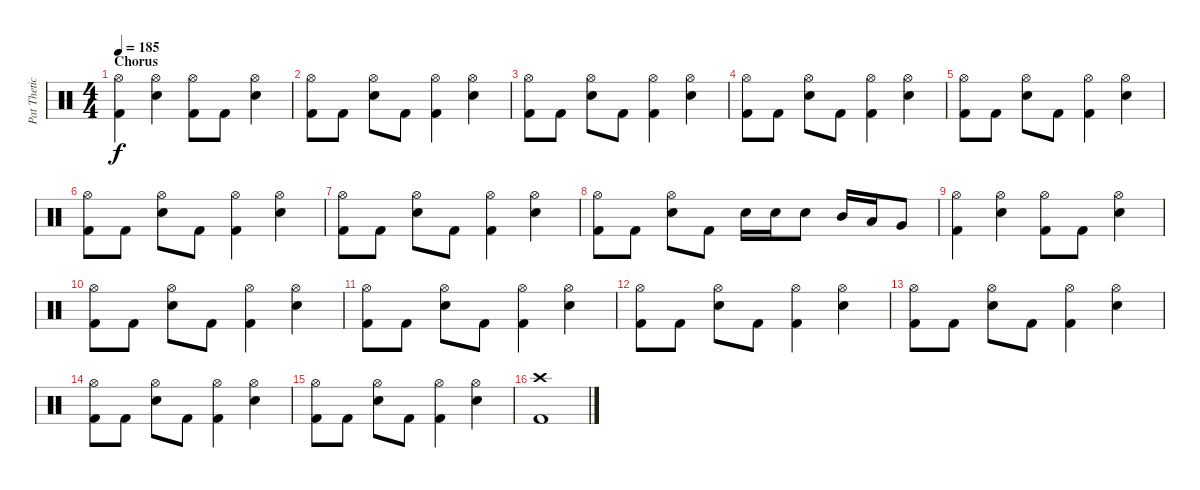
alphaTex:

\track ("Pat Thetic" "Pat Thetic") {instrument percussion}
\staff {score}
\articulation defaults
\ts (4 4)
\section ("" "Chorus")
\tempo 185
\clef neutral
\ks c
("Hi-Hat (open)" "Kick (hit) 2").4{dy f} ("Hi-Hat (open)" "Electric Snare (hit)").4 ("Hi-Hat (open)" "Kick (hit) 2").8 "Kick (hit) 2".8 ("Hi-Hat (open)" "Electric Snare (hit)").4 |
("Hi-Hat (open)" "Kick (hit) 2").8 "Kick (hit) 2".8 ("Hi-Hat (open)" "Electric Snare (hit)").8 "Kick (hit) 2".8 ("Hi-Hat (open)" "Kick (hit) 2").4 ("Hi-Hat (open)" "Electric Snare (hit)").4 |
("Hi-Hat (open)" "Kick (hit) 2").8 "Kick (hit) 2".8 ("Hi-Hat (open)" "Electric Snare (hit)").8 "Kick (hit) 2".8 ("Hi-Hat (open)" "Kick (hit) 2").4 ("Hi-Hat (open)" "Electric Snare (hit)").4 |
("Hi-Hat (open)" "Kick (hit) 2").8 "Kick (hit) 2".8 ("Hi-Hat (open)" "Electric Snare (hit)").8 "Kick (hit) 2".8 ("Hi-Hat (open)" "Kick (hit) 2").4 ("Hi-Hat (open)" "Electric Snare (hit)").4 |
("Hi-Hat (open)" "Kick (hit) 2").8 "Kick (hit) 2".8 ("Hi-Hat (open)" "Electric Snare (hit)").8 "Kick (hit) 2".8 ("Hi-Hat (open)" "Kick (hit) 2").4 ("Hi-Hat (open)" "Electric Snare (hit)").4 |
("Hi-Hat (open)" "Kick (hit) 2").8 "Kick (hit) 2".8 ("Hi-Hat (open)" "Electric Snare (hit)").8 "Kick (hit) 2".8 ("Hi-Hat (open)" "Kick (hit) 2").4 ("Hi-Hat (open)" "Electric Snare (hit)").4 |
("Hi-Hat (open)" "Kick (hit) 2").8 "Kick (hit) 2".8 ("Hi-Hat (open)" "Electric Snare (hit)").8 "Kick (hit) 2".8 ("Hi-Hat (open)" "Kick (hit) 2").4 ("Hi-Hat (open)" "Electric Snare (hit)").4 |
("Hi-Hat (open)" "Kick (hit) 2").8 "Kick (hit) 2".8 ("Hi-Hat (open)" "Electric Snare (hit)").8 "Kick (hit) 2".8 "Electric Snare (hit)".16 "Electric Snare (hit)".16 "Electric Snare (hit)".8 "Mid Tom (hit)".16 "Low Tom (hit)".16 "Very Low Tom (hit)".8 |
("Hi-Hat (open)" "Kick (hit) 2").4 ("Hi-Hat (open)" "Electric Snare (hit)").4 ("Hi-Hat (open)" "Kick (hit) 2").8 "Kick (hit) 2".8 ("Hi-Hat (open)" "Electric Snare (hit)").4 |
("Hi-Hat (open)" "Kick (hit) 2").8 "Kick (hit) 2".8 ("Hi-Hat (open)" "Electric Snare (hit)").8 "Kick (hit) 2".8 ("Hi-Hat (open)" "Kick (hit) 2").4 ("Hi-Hat (open)" "Electric Snare (hit)").4 |
("Hi-Hat (open)" "Kick (hit) 2").8 "Kick (hit) 2".8 ("Hi-Hat (open)" "Electric Snare (hit)").8 "Kick (hit) 2".8 ("Hi-Hat (open)" "Kick (hit) 2").4 ("Hi-Hat (open)" "Electric Snare (hit)").4 |
("Hi-Hat (open)" "Kick (hit) 2").8 "Kick (hit) 2".8 ("Hi-Hat (open)" "Electric Snare (hit)").8 "Kick (hit) 2".8 ("Hi-Hat (open)" "Kick (hit) 2").4 ("Hi-Hat (open)" "Electric Snare (hit)").4 |
("Hi-Hat (open)" "Kick (hit) 2").8 "Kick (hit) 2".8 ("Hi-Hat (open)" "Electric Snare (hit)").8 "Kick (hit) 2".8 ("Hi-Hat (open)" "Kick (hit) 2").4 ("Hi-Hat (open)" "Electric Snare (hit)").4 |
("Hi-Hat (open)" "Kick (hit) 2").8 "Kick (hit) 2".8 ("Hi-Hat (open)" "Electric Snare (hit)").8 "Kick (hit) 2".8 ("Hi-Hat (open)" "Kick (hit) 2").4 ("Hi-Hat (open)" "Electric Snare (hit)").4 |
("Hi-Hat (open)" "Kick (hit) 2").8 "Kick (hit) 2".8 ("Hi-Hat (open)" "Electric Snare (hit)").8 "Kick (hit) 2".8 ("Hi-Hat (open)" "Kick (hit) 2").4 ("Hi-Hat (open)" "Electric Snare (hit)").4 |
("Crash high (hit)" "Kick (hit) 2").1
